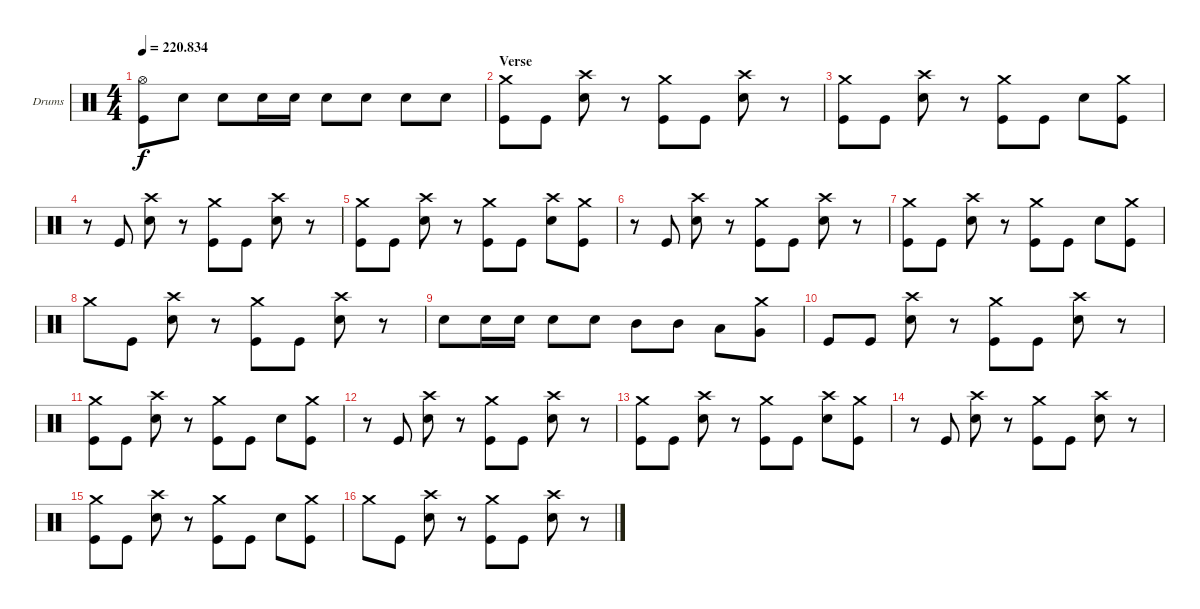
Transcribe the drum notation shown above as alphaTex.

\bracketExtendMode groupsimilarinstruments
\firstSystemTrackNameOrientation horizontal
\otherSystemsTrackNameOrientation horizontal
\track ("Drumkit" "Drums") {instrument percussion}
\staff {score}
\articulation defaults
\ts (4 4)
\tempo
220.834
\accidentals auto
\clef neutral
\ottava regular
\simile none
\ks c
("Hi-Hat (open)" "Kick (hit)").8{dy f} "Snare (hit) 2".8 "Snare (hit) 2".8 "Snare (hit) 2".16 "Snare (hit) 2".16 "Snare (hit) 2".8 "Snare (hit) 2".8 "Snare (hit) 2".8 "Snare (hit) 2".8 |
\section ("" "Verse")
("Crash medium (hit)" "Kick (hit)").8 "Kick (hit)".8 ("Crash high (hit)" "Snare (hit) 2").8 r.8 ("Crash medium (hit)" "Kick (hit)").8 "Kick (hit)".8 ("Crash high (hit)" "Snare (hit) 2").8 r.8 |
("Crash medium (hit)" "Kick (hit)").8 "Kick (hit)".8 ("Crash high (hit)" "Snare (hit) 2").8 r.8 ("Crash medium (hit)" "Kick (hit)").8 "Kick (hit)".8 "Snare (hit) 2".8 ("Kick (hit)" "Crash medium (hit)").8 |
r.8 "Kick (hit)".8 ("Crash high (hit)" "Snare (hit) 2").8 r.8 ("Crash medium (hit)" "Kick (hit)").8 "Kick (hit)".8 ("Crash high (hit)" "Snare (hit) 2").8 r.8 |
("Crash medium (hit)" "Kick (hit)").8 "Kick (hit)".8 ("Crash high (hit)" "Snare (hit) 2").8 r.8 ("Crash medium (hit)" "Kick (hit)").8 "Kick (hit)".8 ("Crash high (hit)" "Snare (hit) 2").8 ("Kick (hit)" "Crash medium (hit)").8 |
r.8 "Kick (hit)".8 ("Crash high (hit)" "Snare (hit) 2").8 r.8 ("Crash medium (hit)" "Kick (hit)").8 "Kick (hit)".8 ("Crash high (hit)" "Snare (hit) 2").8 r.8 |
("Crash medium (hit)" "Kick (hit)").8 "Kick (hit)".8 ("Crash high (hit)" "Snare (hit) 2").8 r.8 ("Crash medium (hit)" "Kick (hit)").8 "Kick (hit)".8 "Snare (hit) 2".8 ("Kick (hit)" "Crash medium (hit)").8 |
"Crash medium (hit)".8 "Kick (hit)".8 ("Crash high (hit)" "Snare (hit) 2").8 r.8 ("Crash medium (hit)" "Kick (hit)").8 "Kick (hit)".8 ("Crash high (hit)" "Snare (hit) 2").8 r.8 |
"Snare (hit) 2".8 "Snare (hit) 2".16 "Snare (hit) 2".16 "Snare (hit) 2".8 "Snare (hit) 2".8 "Mid Tom (hit)".8 "Mid Tom (hit)".8 "Low Tom (hit)".8 ("Very Low Tom (hit)" "Crash medium (hit)").8 |
"Kick (hit)".8 "Kick (hit)".8 ("Crash high (hit)" "Snare (hit) 2").8 r.8 ("Crash medium (hit)" "Kick (hit)").8 "Kick (hit)".8 ("Crash high (hit)" "Snare (hit) 2").8 r.8 |
("Crash medium (hit)" "Kick (hit)").8 "Kick (hit)".8 ("Crash high (hit)" "Snare (hit) 2").8 r.8 ("Crash medium (hit)" "Kick (hit)").8 "Kick (hit)".8 "Snare (hit) 2".8 ("Kick (hit)" "Crash medium (hit)").8 |
r.8 "Kick (hit)".8 ("Crash high (hit)" "Snare (hit) 2").8 r.8 ("Crash medium (hit)" "Kick (hit)").8 "Kick (hit)".8 ("Crash high (hit)" "Snare (hit) 2").8 r.8 |
("Crash medium (hit)" "Kick (hit)").8 "Kick (hit)".8 ("Crash high (hit)" "Snare (hit) 2").8 r.8 ("Crash medium (hit)" "Kick (hit)").8 "Kick (hit)".8 ("Crash high (hit)" "Snare (hit) 2").8 ("Kick (hit)" "Crash medium (hit)").8 |
r.8 "Kick (hit)".8 ("Crash high (hit)" "Snare (hit) 2").8 r.8 ("Crash medium (hit)" "Kick (hit)").8 "Kick (hit)".8 ("Crash high (hit)" "Snare (hit) 2").8 r.8 |
("Crash medium (hit)" "Kick (hit)").8 "Kick (hit)".8 ("Crash high (hit)" "Snare (hit) 2").8 r.8 ("Crash medium (hit)" "Kick (hit)").8 "Kick (hit)".8 "Snare (hit) 2".8 ("Kick (hit)" "Crash medium (hit)").8 |
"Crash medium (hit)".8 "Kick (hit)".8 ("Crash high (hit)" "Snare (hit) 2").8 r.8 ("Crash medium (hit)" "Kick (hit)").8 "Kick (hit)".8 ("Crash high (hit)" "Snare (hit) 2").8 r.8
